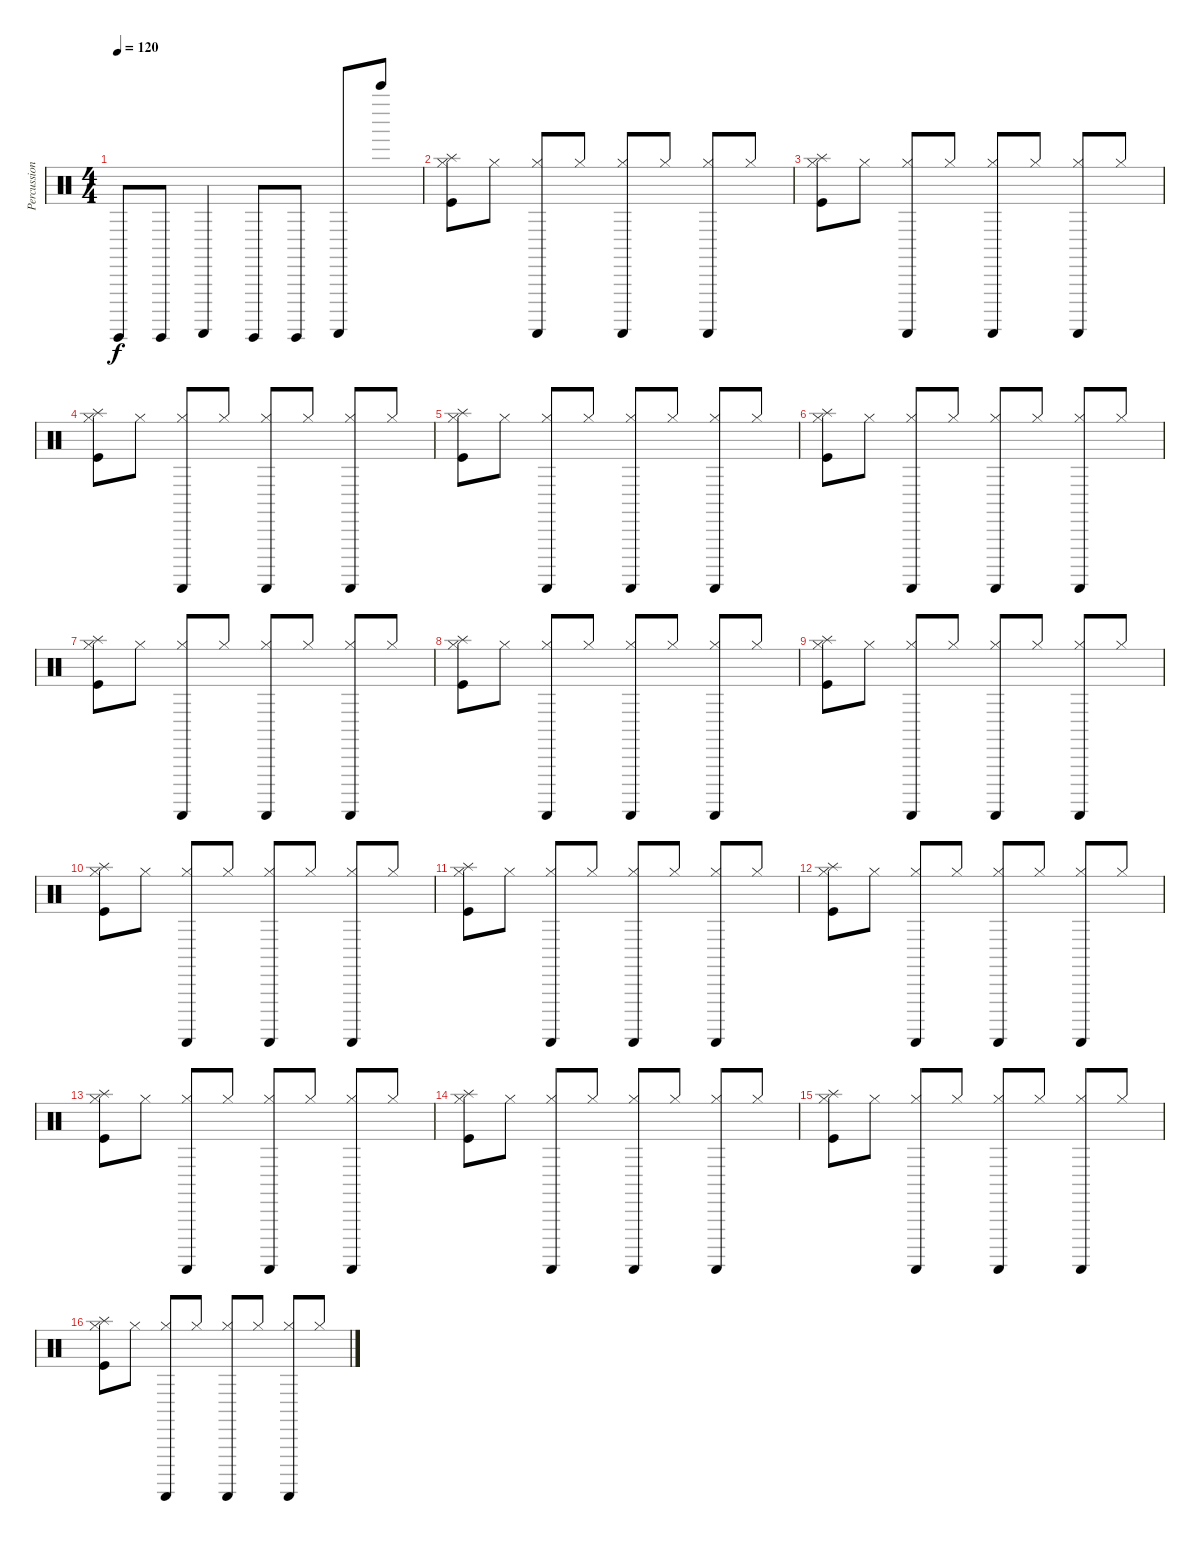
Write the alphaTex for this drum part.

\track ("Percussion" "Percussion") {instrument percussion}
\staff {score}
\articulation defaults
\ts (4 4)
\tempo 120
\clef neutral
\ks c "Guiro (hit)".8{dy f} "Guiro (hit)".8 "Guiro (scrap-return)".4 "Guiro (hit)".8 "Guiro (hit)".8 "Guiro (scrap-return)".8 "Bell Tree (hit)".8
|
("Splash (hit)" "Kick (hit)" "Hi-Hat (closed)").8 "Hi-Hat (closed)".8 ("Guiro (scrap-return)" "Hi-Hat (closed)").8 "Hi-Hat (closed)".8 ("Guiro (scrap-return)" "Hi-Hat (closed)").8 "Hi-Hat (closed)".8 ("Guiro (scrap-return)" "Hi-Hat (closed)").8 "Hi-Hat (closed)".8 |
("Splash (hit)" "Kick (hit)" "Hi-Hat (closed)").8 "Hi-Hat (closed)".8 ("Guiro (scrap-return)" "Hi-Hat (closed)").8 "Hi-Hat (closed)".8 ("Guiro (scrap-return)" "Hi-Hat (closed)").8 "Hi-Hat (closed)".8 ("Guiro (scrap-return)" "Hi-Hat (closed)").8 "Hi-Hat (closed)".8 |
("Splash (hit)" "Kick (hit)" "Hi-Hat (closed)").8 "Hi-Hat (closed)".8 ("Guiro (scrap-return)" "Hi-Hat (closed)").8 "Hi-Hat (closed)".8 ("Guiro (scrap-return)" "Hi-Hat (closed)").8 "Hi-Hat (closed)".8 ("Guiro (scrap-return)" "Hi-Hat (closed)").8 "Hi-Hat (closed)".8 |
("Splash (hit)" "Kick (hit)" "Hi-Hat (closed)").8 "Hi-Hat (closed)".8 ("Guiro (scrap-return)" "Hi-Hat (closed)").8 "Hi-Hat (closed)".8 ("Guiro (scrap-return)" "Hi-Hat (closed)").8 "Hi-Hat (closed)".8 ("Guiro (scrap-return)" "Hi-Hat (closed)").8 "Hi-Hat (closed)".8 |
("Splash (hit)" "Kick (hit)" "Hi-Hat (closed)").8 "Hi-Hat (closed)".8 ("Guiro (scrap-return)" "Hi-Hat (closed)").8 "Hi-Hat (closed)".8 ("Guiro (scrap-return)" "Hi-Hat (closed)").8 "Hi-Hat (closed)".8 ("Guiro (scrap-return)" "Hi-Hat (closed)").8 "Hi-Hat (closed)".8 |
("Splash (hit)" "Kick (hit)" "Hi-Hat (closed)").8 "Hi-Hat (closed)".8 ("Guiro (scrap-return)" "Hi-Hat (closed)").8 "Hi-Hat (closed)".8 ("Guiro (scrap-return)" "Hi-Hat (closed)").8 "Hi-Hat (closed)".8 ("Guiro (scrap-return)" "Hi-Hat (closed)").8 "Hi-Hat (closed)".8 |
("Splash (hit)" "Kick (hit)" "Hi-Hat (closed)").8 "Hi-Hat (closed)".8 ("Guiro (scrap-return)" "Hi-Hat (closed)").8 "Hi-Hat (closed)".8 ("Guiro (scrap-return)" "Hi-Hat (closed)").8 "Hi-Hat (closed)".8 ("Guiro (scrap-return)" "Hi-Hat (closed)").8 "Hi-Hat (closed)".8 |
("Splash (hit)" "Kick (hit)" "Hi-Hat (closed)").8 "Hi-Hat (closed)".8 ("Guiro (scrap-return)" "Hi-Hat (closed)").8 "Hi-Hat (closed)".8 ("Guiro (scrap-return)" "Hi-Hat (closed)").8 "Hi-Hat (closed)".8 ("Guiro (scrap-return)" "Hi-Hat (closed)").8 "Hi-Hat (closed)".8 |
("Splash (hit)" "Kick (hit)" "Hi-Hat (closed)").8 "Hi-Hat (closed)".8 ("Guiro (scrap-return)" "Hi-Hat (closed)").8 "Hi-Hat (closed)".8 ("Guiro (scrap-return)" "Hi-Hat (closed)").8 "Hi-Hat (closed)".8 ("Guiro (scrap-return)" "Hi-Hat (closed)").8 "Hi-Hat (closed)".8 |
("Splash (hit)" "Kick (hit)" "Hi-Hat (closed)").8 "Hi-Hat (closed)".8 ("Guiro (scrap-return)" "Hi-Hat (closed)").8 "Hi-Hat (closed)".8 ("Guiro (scrap-return)" "Hi-Hat (closed)").8 "Hi-Hat (closed)".8 ("Guiro (scrap-return)" "Hi-Hat (closed)").8 "Hi-Hat (closed)".8 |
("Splash (hit)" "Kick (hit)" "Hi-Hat (closed)").8 "Hi-Hat (closed)".8 ("Guiro (scrap-return)" "Hi-Hat (closed)").8 "Hi-Hat (closed)".8 ("Guiro (scrap-return)" "Hi-Hat (closed)").8 "Hi-Hat (closed)".8 ("Guiro (scrap-return)" "Hi-Hat (closed)").8 "Hi-Hat (closed)".8 |
("Splash (hit)" "Kick (hit)" "Hi-Hat (closed)").8 "Hi-Hat (closed)".8 ("Guiro (scrap-return)" "Hi-Hat (closed)").8 "Hi-Hat (closed)".8 ("Guiro (scrap-return)" "Hi-Hat (closed)").8 "Hi-Hat (closed)".8 ("Guiro (scrap-return)" "Hi-Hat (closed)").8 "Hi-Hat (closed)".8 |
("Splash (hit)" "Kick (hit)" "Hi-Hat (closed)").8 "Hi-Hat (closed)".8 ("Guiro (scrap-return)" "Hi-Hat (closed)").8 "Hi-Hat (closed)".8 ("Guiro (scrap-return)" "Hi-Hat (closed)").8 "Hi-Hat (closed)".8 ("Guiro (scrap-return)" "Hi-Hat (closed)").8 "Hi-Hat (closed)".8 |
("Splash (hit)" "Kick (hit)" "Hi-Hat (closed)").8 "Hi-Hat (closed)".8 ("Guiro (scrap-return)" "Hi-Hat (closed)").8 "Hi-Hat (closed)".8 ("Guiro (scrap-return)" "Hi-Hat (closed)").8 "Hi-Hat (closed)".8 ("Guiro (scrap-return)" "Hi-Hat (closed)").8 "Hi-Hat (closed)".8 |
("Splash (hit)" "Kick (hit)" "Hi-Hat (closed)").8 "Hi-Hat (closed)".8 ("Guiro (scrap-return)" "Hi-Hat (closed)").8 "Hi-Hat (closed)".8 ("Guiro (scrap-return)" "Hi-Hat (closed)").8 "Hi-Hat (closed)".8 ("Guiro (scrap-return)" "Hi-Hat (closed)").8 "Hi-Hat (closed)".8
